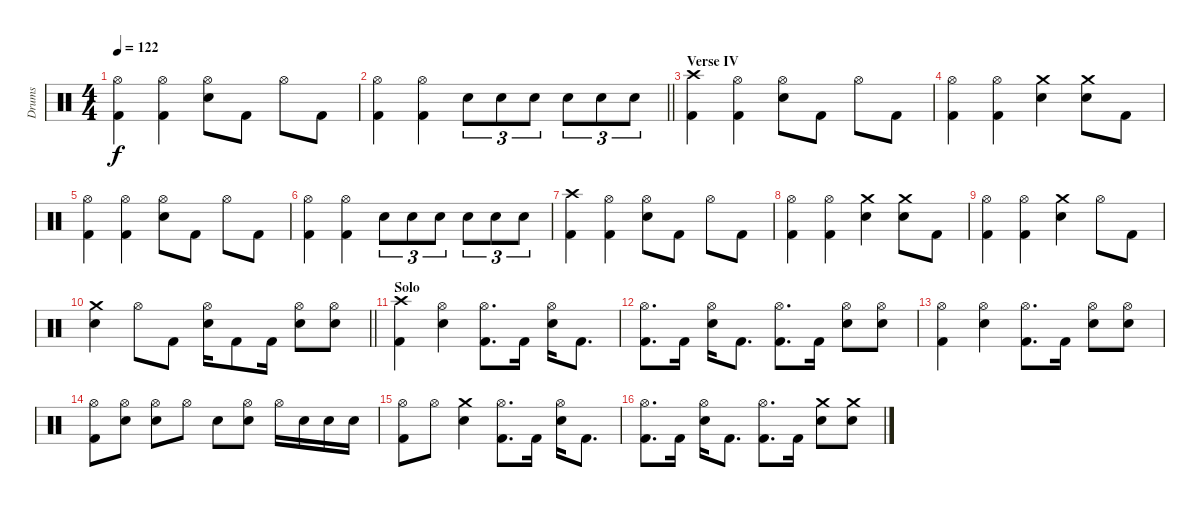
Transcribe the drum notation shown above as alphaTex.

\track ("Drums" "Drums") {instrument percussion}
\staff {score}
\articulation defaults
\ts (4 4)
\tempo 122
\clef neutral
\ks c
("Hi-Hat (open)" "Kick (hit) 2").4{dy f} ("Hi-Hat (open)" "Kick (hit) 2").4 ("Hi-Hat (open)" "Snare (hit) 2").8 "Kick (hit) 2".8 "Hi-Hat (open)".8 "Kick (hit) 2".8 |
\barLineRight lightlight
("Hi-Hat (open)" "Kick (hit) 2").4 ("Hi-Hat (open)" "Kick (hit) 2").4 "Snare (hit) 2".8{tu (3 2)} "Snare (hit) 2".8{tu (3 2)} "Snare (hit) 2".8{tu (3 2)} "Snare (hit) 2".8{tu (3 2)} "Snare (hit) 2".8{tu (3 2)} "Snare (hit) 2".8{tu (3 2)} |
\section ("" "Verse IV")
("Crash high (hit)" "Kick (hit) 2").4 ("Hi-Hat (open)" "Kick (hit) 2").4 ("Hi-Hat (open)" "Snare (hit) 2").8 "Kick (hit) 2".8 "Hi-Hat (open)".8 "Kick (hit) 2".8 |
("Hi-Hat (open)" "Kick (hit) 2").4 ("Hi-Hat (open)" "Kick (hit) 2").4 ("Crash medium (hit)" "Snare (hit) 2").4 ("Crash medium (hit)" "Snare (hit) 2").8 "Kick (hit) 2".8 |
("Hi-Hat (open)" "Kick (hit) 2").4 ("Hi-Hat (open)" "Kick (hit) 2").4 ("Hi-Hat (open)" "Snare (hit) 2").8 "Kick (hit) 2".8 "Hi-Hat (open)".8 "Kick (hit) 2".8 |
("Hi-Hat (open)" "Kick (hit) 2").4 ("Hi-Hat (open)" "Kick (hit) 2").4 "Snare (hit) 2".8{tu (3 2)} "Snare (hit) 2".8{tu (3 2)} "Snare (hit) 2".8{tu (3 2)} "Snare (hit) 2".8{tu (3 2)} "Snare (hit) 2".8{tu (3 2)} "Snare (hit) 2".8{tu (3 2)} |
("Crash high (hit)" "Kick (hit) 2").4 ("Hi-Hat (open)" "Kick (hit) 2").4 ("Hi-Hat (open)" "Snare (hit) 2").8 "Kick (hit) 2".8 "Hi-Hat (open)".8 "Kick (hit) 2".8 |
("Hi-Hat (open)" "Kick (hit) 2").4 ("Hi-Hat (open)" "Kick (hit) 2").4 ("Crash medium (hit)" "Snare (hit) 2").4 ("Crash medium (hit)" "Snare (hit) 2").8 "Kick (hit) 2".8 |
("Hi-Hat (open)" "Kick (hit) 2").4 ("Hi-Hat (open)" "Kick (hit) 2").4 ("Crash medium (hit)" "Snare (hit) 2").4 "Hi-Hat (open)".8 "Kick (hit) 2".8 |
\barLineRight lightlight
("Crash medium (hit)" "Snare (hit) 2").4 "Hi-Hat (open)".8 "Kick (hit) 2".8 ("Hi-Hat (open)" "Snare (hit) 2").16 "Kick (hit) 2".8 "Kick (hit) 2".16 ("Hi-Hat (open)" "Snare (hit) 2").8 ("Hi-Hat (open)" "Snare (hit) 2").8 |
\section ("" "Solo")
("Crash high (hit)" "Kick (hit) 2").4 ("Hi-Hat (open)" "Snare (hit) 2").4 ("Hi-Hat (open)" "Kick (hit) 2").8{d} "Kick (hit) 2".16 ("Hi-Hat (open)" "Snare (hit) 2").16 "Kick (hit) 2".8{d} |
("Hi-Hat (open)" "Kick (hit) 2").8{d} "Kick (hit) 2".16 ("Hi-Hat (open)" "Snare (hit) 2").16 "Kick (hit) 2".8{d} ("Hi-Hat (open)" "Kick (hit) 2").8{d} "Kick (hit) 2".16 ("Hi-Hat (open)" "Snare (hit) 2").8 ("Hi-Hat (open)" "Snare (hit) 2").8 |
("Hi-Hat (open)" "Kick (hit) 2").4 ("Hi-Hat (open)" "Snare (hit) 2").4 ("Hi-Hat (open)" "Kick (hit) 2").8{d} "Kick (hit) 2".16 ("Hi-Hat (open)" "Snare (hit) 2").8 ("Hi-Hat (open)" "Snare (hit) 2").8 |
("Hi-Hat (open)" "Kick (hit) 2").8 ("Hi-Hat (open)" "Snare (hit) 2").8 ("Hi-Hat (open)" "Snare (hit) 2").8 "Hi-Hat (open)".8 "Snare (hit) 2".8 ("Hi-Hat (open)" "Snare (hit) 2").8 "Hi-Hat (open)".16 "Snare (hit) 2".16 "Snare (hit) 2".16 "Snare (hit) 2".16 |
("Hi-Hat (open)" "Kick (hit) 2").8 "Hi-Hat (open)".8 ("Crash medium (hit)" "Snare (hit) 2").4 ("Hi-Hat (open)" "Kick (hit) 2").8{d} "Kick (hit) 2".16 ("Hi-Hat (open)" "Snare (hit) 2").16 "Kick (hit) 2".8{d} |
("Hi-Hat (open)" "Kick (hit) 2").8{d} "Kick (hit) 2".16 ("Hi-Hat (open)" "Snare (hit) 2").16 "Kick (hit) 2".8{d} ("Hi-Hat (open)" "Kick (hit) 2").8{d} "Kick (hit) 2".16 ("Crash medium (hit)" "Snare (hit) 2").8 ("Crash medium (hit)" "Snare (hit) 2").8
